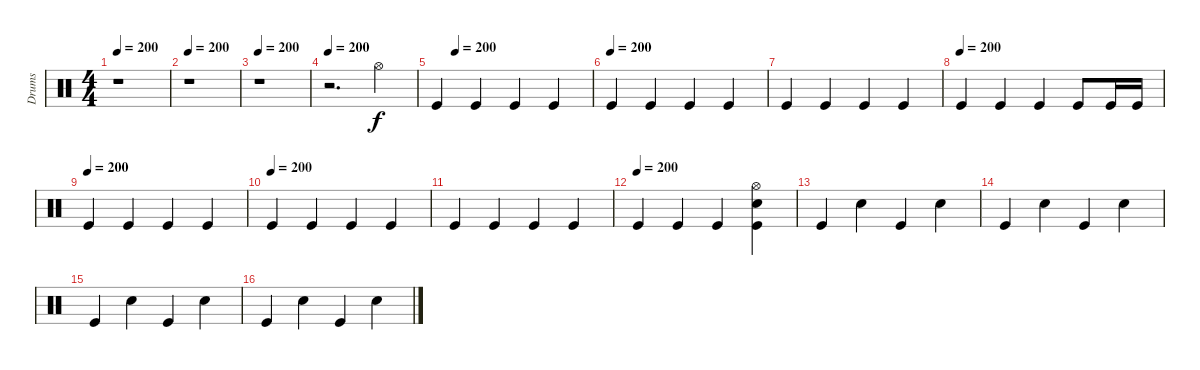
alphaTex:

\track ("Drums" "Drums") {instrument percussion}
\staff {score}
\articulation defaults
\ts (4 4)
\tempo 200
\clef neutral
\ks c
r.1{dy f} |
\tempo 200
r.1 |
\tempo 200
r.1 |
\tempo 200
r.2{d} "Hi-Hat (open)".4 |
\tempo (200 0.125)
"Kick (hit)".4 "Kick (hit)".4 "Kick (hit)".4 "Kick (hit)".4 |
\tempo (200)
"Kick (hit)".4 "Kick (hit)".4 "Kick (hit)".4 "Kick (hit)".4 |
"Kick (hit)".4 "Kick (hit)".4 "Kick (hit)".4 "Kick (hit)".4 |
\tempo (200)
"Kick (hit)".4 "Kick (hit)".4 "Kick (hit)".4 "Kick (hit)".8 "Kick (hit)".16 "Kick (hit)".16 |
\tempo (200)
"Kick (hit)".4 "Kick (hit)".4 "Kick (hit)".4 "Kick (hit)".4 |
\tempo (200)
"Kick (hit)".4 "Kick (hit)".4 "Kick (hit)".4 "Kick (hit)".4 |
"Kick (hit)".4 "Kick (hit)".4 "Kick (hit)".4 "Kick (hit)".4 |
\tempo (200)
"Kick (hit)".4 "Kick (hit)".4 "Kick (hit)".4 ("Snare (hit) 2" "Hi-Hat (open)" "Kick (hit)").4 |
"Kick (hit)".4 "Snare (hit) 2".4 "Kick (hit)".4 "Snare (hit) 2".4 |
"Kick (hit)".4 "Snare (hit) 2".4 "Kick (hit)".4 "Snare (hit) 2".4 |
"Kick (hit)".4 "Snare (hit) 2".4 "Kick (hit)".4 "Snare (hit) 2".4 |
"Kick (hit)".4 "Snare (hit) 2".4 "Kick (hit)".4 "Snare (hit) 2".4
